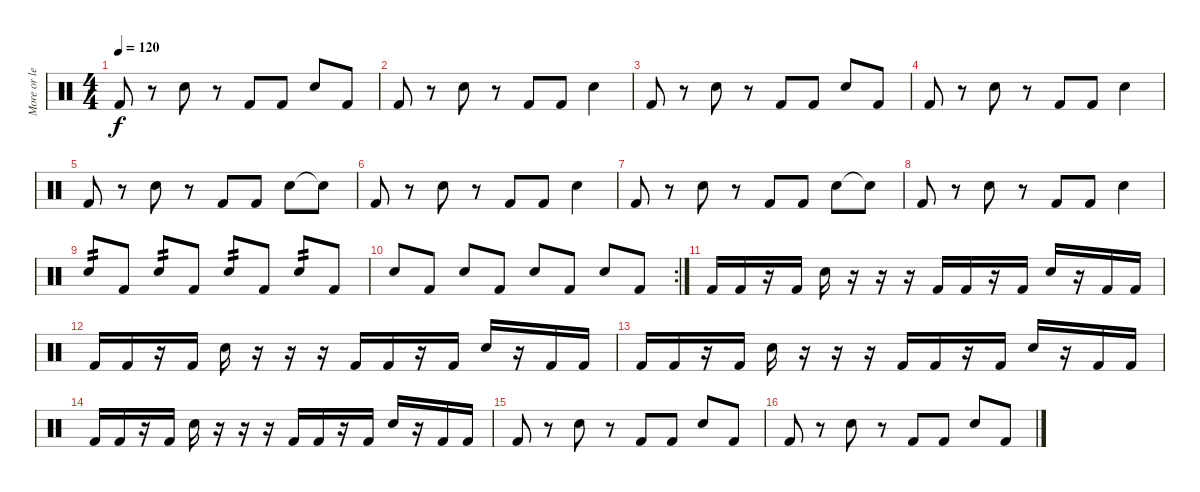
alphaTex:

\track ("More or less Drumming" "More or le") {instrument percussion}
\staff {score}
\articulation defaults
\ts (4 4)
\tempo 120
\clef neutral
\ks c "Kick (hit) 2".8{dy f}
r.8 "Electric Snare (hit)".8 r.8 "Kick (hit) 2".8 "Kick (hit) 2".8 "Electric Snare (hit)".8 "Kick (hit) 2".8 |
"Kick (hit) 2".8 r.8 "Electric Snare (hit)".8 r.8 "Kick (hit) 2".8 "Kick (hit) 2".8 "Electric Snare (hit)".4 |
"Kick (hit) 2".8 r.8 "Electric Snare (hit)".8 r.8 "Kick (hit) 2".8 "Kick (hit) 2".8 "Electric Snare (hit)".8 "Kick (hit) 2".8 |
"Kick (hit) 2".8 r.8 "Electric Snare (hit)".8 r.8 "Kick (hit) 2".8 "Kick (hit) 2".8 "Electric Snare (hit)".4 |
"Kick (hit) 2".8 r.8 "Electric Snare (hit)".8 r.8 "Kick (hit) 2".8 "Kick (hit) 2".8 "Electric Snare (hit)".8 "Snare (hit)"{t}.8 |
"Kick (hit) 2".8 r.8 "Electric Snare (hit)".8 r.8 "Kick (hit) 2".8 "Kick (hit) 2".8 "Electric Snare (hit)".4 |
"Kick (hit) 2".8 r.8 "Electric Snare (hit)".8 r.8 "Kick (hit) 2".8 "Kick (hit) 2".8 "Electric Snare (hit)".8 "Snare (hit)"{t}.8 |
"Kick (hit) 2".8 r.8 "Electric Snare (hit)".8 r.8 "Kick (hit) 2".8 "Kick (hit) 2".8 "Electric Snare (hit)".4 |
"Electric Snare (hit)".8{tp 2} "Kick (hit) 2".8 "Electric Snare (hit)".8{tp 2} "Kick (hit) 2".8 "Electric Snare (hit)".8{tp 2} "Kick (hit) 2".8 "Electric Snare (hit)".8{tp 2} "Kick (hit) 2".8 |
\rc 2 "Electric Snare (hit)".8 "Kick (hit) 2".8 "Electric Snare (hit)".8 "Kick (hit) 2".8 "Electric Snare (hit)".8 "Kick (hit) 2".8 "Electric Snare (hit)".8 "Kick (hit) 2".8
|
"Kick (hit) 2".16 "Kick (hit) 2".16 r.16 "Kick (hit) 2".16 "Electric Snare (hit)".16 r.16 r.16 r.16 "Kick (hit) 2".16 "Kick (hit) 2".16 r.16 "Kick (hit) 2".16 "Electric Snare (hit)".16 r.16 "Kick (hit) 2".16 "Kick (hit) 2".16 |
"Kick (hit) 2".16 "Kick (hit) 2".16 r.16 "Kick (hit) 2".16 "Electric Snare (hit)".16 r.16 r.16 r.16 "Kick (hit) 2".16 "Kick (hit) 2".16 r.16 "Kick (hit) 2".16 "Electric Snare (hit)".16 r.16 "Kick (hit) 2".16 "Kick (hit) 2".16 |
"Kick (hit) 2".16 "Kick (hit) 2".16 r.16 "Kick (hit) 2".16 "Electric Snare (hit)".16 r.16 r.16 r.16 "Kick (hit) 2".16 "Kick (hit) 2".16 r.16 "Kick (hit) 2".16 "Electric Snare (hit)".16 r.16 "Kick (hit) 2".16 "Kick (hit) 2".16 |
"Kick (hit) 2".16 "Kick (hit) 2".16 r.16 "Kick (hit) 2".16 "Electric Snare (hit)".16 r.16 r.16 r.16 "Kick (hit) 2".16 "Kick (hit) 2".16 r.16 "Kick (hit) 2".16 "Electric Snare (hit)".16 r.16 "Kick (hit) 2".16 "Kick (hit) 2".16 |
"Kick (hit) 2".8 r.8 "Electric Snare (hit)".8 r.8 "Kick (hit) 2".8 "Kick (hit) 2".8 "Electric Snare (hit)".8 "Kick (hit) 2".8 |
"Kick (hit) 2".8 r.8 "Electric Snare (hit)".8 r.8 "Kick (hit) 2".8 "Kick (hit) 2".8 "Electric Snare (hit)".8 "Kick (hit) 2".8
